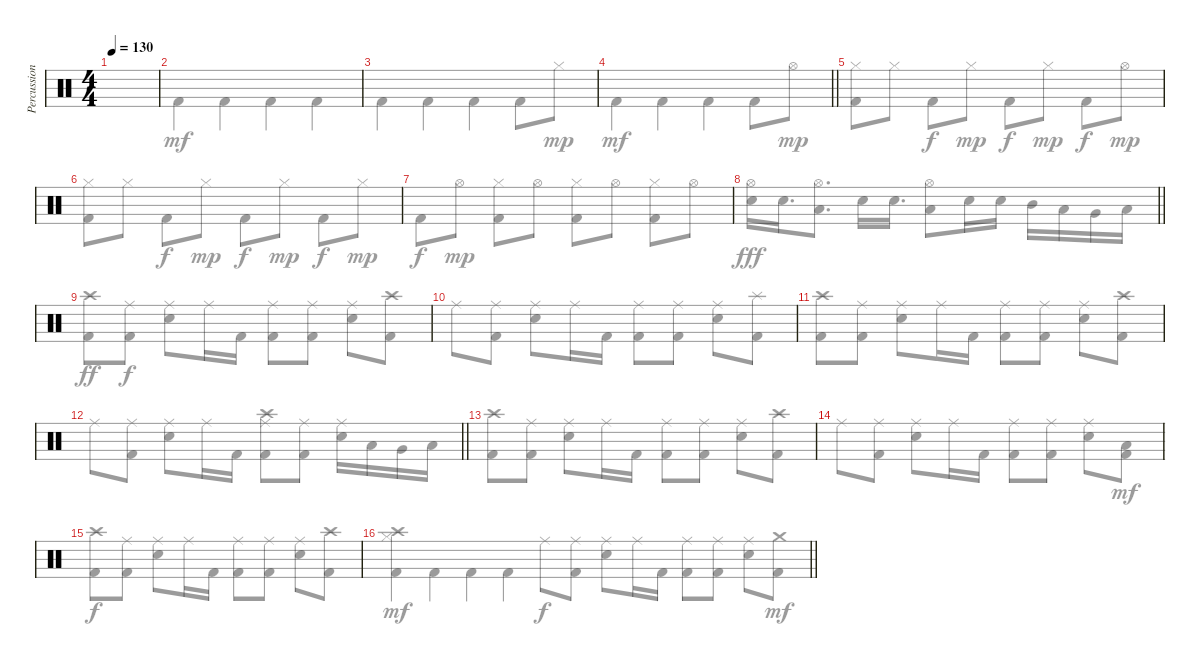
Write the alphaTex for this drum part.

\track ("Percussion" "Percussion") {instrument percussion}
\staff {score}
\articulation defaults
\voice
\ts (4 4)
\tempo 130
\clef neutral
\ks c
|
|
|
\barLineRight lightlight
|
|
|
|
\barLineRight lightlight
|
|
|
|
\barLineRight lightlight
|
|
|
|
\barLineRight lightlight
\voice
\clef neutral
\ks c
("Crash high (hit)" "Hi-Hat (closed)" "Kick (hit) 2").4{dy mf} "Kick (hit) 2".4 "Kick (hit) 2".4 "Kick (hit) 2".4 |
"Kick (hit) 2".4 "Kick (hit) 2".4 "Kick (hit) 2".4 "Kick (hit) 2".4 |
"Kick (hit) 2".4 "Kick (hit) 2".4 "Kick (hit) 2".4 "Kick (hit) 2".8 "Hi-Hat (closed)".8{dy mp} |
\barLineRight lightlight "Kick (hit) 2".4{dy mf} "Kick (hit) 2".4 "Kick (hit) 2".4 "Kick (hit) 2".8 "Hi-Hat (open)".8{dy mp}
|
("Hi-Hat (closed)" "Kick (hit) 2").8 "Hi-Hat (closed)".8 "Kick (hit) 2".8{dy f} "Hi-Hat (closed)".8{dy mp} "Kick (hit) 2".8{dy f} "Hi-Hat (closed)".8{dy mp} "Kick (hit) 2".8{dy f} "Hi-Hat (open)".8{dy mp} |
("Hi-Hat (closed)" "Kick (hit) 2").8 "Hi-Hat (closed)".8 "Kick (hit) 2".8{dy f} "Hi-Hat (closed)".8{dy mp} "Kick (hit) 2".8{dy f} "Hi-Hat (closed)".8{dy mp} "Kick (hit) 2".8{dy f} "Hi-Hat (closed)".8{dy mp} |
"Kick (hit) 2".8{dy f} "Hi-Hat (open)".8{dy mp} ("Hi-Hat (closed)" "Kick (hit) 2").8 "Hi-Hat (open)".8 ("Hi-Hat (closed)" "Kick (hit) 2").8 "Hi-Hat (open)".8 ("Hi-Hat (closed)" "Kick (hit) 2").8 "Hi-Hat (open)".8 |
\barLineRight lightlight
("Electric Snare (hit)" "Hi-Hat (open)").16{dy fff} "Electric Snare (hit)".16{d} ("Low Floor Tom (hit)" "Hi-Hat (open)").8{d} "Electric Snare (hit)".16 "Electric Snare (hit)".16{d} ("Low Floor Tom (hit)" "Hi-Hat (open)").8 "Electric Snare (hit)".16 "Electric Snare (hit)".16 "Mid Tom (hit)".16 "Low Tom (hit)".16 "Very Low Tom (hit)".16 "Low Floor Tom (hit)".16 |
("Crash high (hit)" "Kick (hit) 2").8{dy ff} ("Ride (middle)" "Kick (hit) 2").8{dy f} ("Ride (middle)" "Electric Snare (hit)").8 "Ride (middle)".16 "Kick (hit) 2".16 ("Ride (middle)" "Kick (hit) 2").8 ("Ride (middle)" "Kick (hit) 2").8 ("Ride (middle)" "Electric Snare (hit)").8 ("Crash high (hit)" "Kick (hit) 2").8 |
"Ride (middle)".8 ("Ride (middle)" "Kick (hit) 2").8 ("Ride (middle)" "Electric Snare (hit)").8 "Ride (middle)".16 "Kick (hit) 2".16 ("Ride (middle)" "Kick (hit) 2").8 ("Ride (middle)" "Kick (hit) 2").8 ("Ride (middle)" "Electric Snare (hit)").8 ("Splash (hit)" "Kick (hit) 2").8 |
("Crash high (hit)" "Kick (hit) 2").8 ("Ride (middle)" "Kick (hit) 2").8 ("Ride (middle)" "Electric Snare (hit)").8 "Ride (middle)".16 "Kick (hit) 2".16 ("Ride (middle)" "Kick (hit) 2").8 ("Ride (middle)" "Kick (hit) 2").8 ("Ride (middle)" "Electric Snare (hit)").8 ("Crash high (hit)" "Kick (hit) 2").8 |
\barLineRight lightlight "Ride (middle)".8
("Ride (middle)" "Kick (hit) 2").8 ("Ride (middle)" "Electric Snare (hit)").8 "Ride (middle)".16 "Kick (hit) 2".16 ("Crash high (hit)" "Ride (middle)" "Kick (hit) 2").8 ("Ride (middle)" "Kick (hit) 2").8 ("Ride (middle)" "Electric Snare (hit)").16 "Low Tom (hit)".16 "Very Low Tom (hit)".16 "Low Floor Tom (hit)".16 |
("Crash high (hit)" "Kick (hit) 2").8 ("Ride (middle)" "Kick (hit) 2").8 ("Ride (middle)" "Electric Snare (hit)").8 "Ride (middle)".16 "Kick (hit) 2".16 ("Ride (middle)" "Kick (hit) 2").8 ("Ride (middle)" "Kick (hit) 2").8 ("Ride (middle)" "Electric Snare (hit)").8 ("Crash high (hit)" "Kick (hit) 2").8 |
"Ride (middle)".8 ("Ride (middle)" "Kick (hit) 2").8 ("Ride (middle)" "Electric Snare (hit)").8 "Ride (middle)".16 "Kick (hit) 2".16 ("Ride (middle)" "Kick (hit) 2").8 ("Ride (middle)" "Kick (hit) 2").8 ("Ride (middle)" "Electric Snare (hit)").8 ("Low Floor Tom (hit)" "Kick (hit) 2").8{dy mf} |
("Crash high (hit)" "Kick (hit) 2").8{dy f} ("Ride (middle)" "Kick (hit) 2").8 ("Ride (middle)" "Electric Snare (hit)").8 "Ride (middle)".16 "Kick (hit) 2".16 ("Ride (middle)" "Kick (hit) 2").8 ("Ride (middle)" "Kick (hit) 2").8 ("Ride (middle)" "Electric Snare (hit)").8 ("Crash high (hit)" "Kick (hit) 2").8 |
\barLineRight lightlight "Ride (middle)".8
("Ride (middle)" "Kick (hit) 2").8 ("Ride (middle)" "Electric Snare (hit)").8 "Ride (middle)".16 "Kick (hit) 2".16 ("Ride (middle)" "Kick (hit) 2").8 ("Ride (middle)" "Kick (hit) 2").8 ("Ride (middle)" "Electric Snare (hit)").8 ("Crash medium (hit)" "Kick (hit) 2").8{dy mf}
